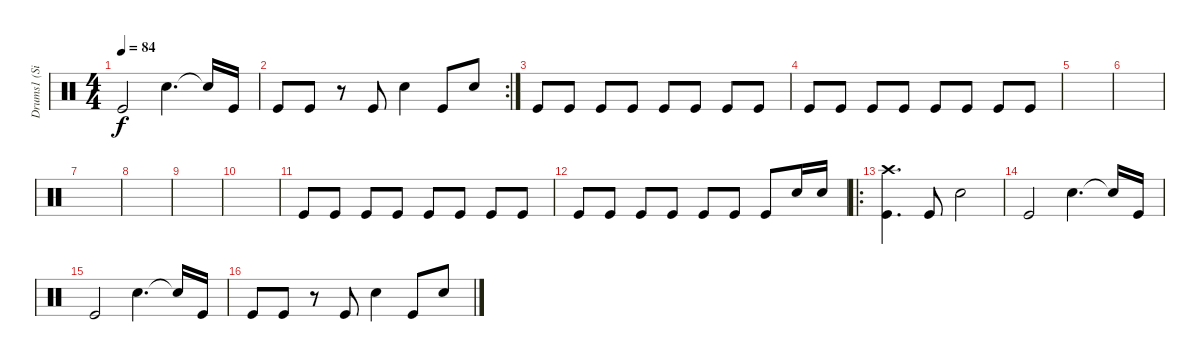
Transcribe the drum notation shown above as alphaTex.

\track ("Drums1 (Silas)" "Drums1 (Si") {instrument percussion}
\staff {score}
\articulation defaults
\ts (4 4)
\tempo 84
\clef neutral
\ks c "Kick (hit)".2{dy f} "Snare (hit) 2".4{d} "Snare (hit) 2"{t}.16 "Kick (hit)".16
|
\rc 2 "Kick (hit)".8 "Kick (hit)".8
r.8 "Kick (hit)".8 "Snare (hit) 2".4 "Kick (hit)".8 "Snare (hit) 2".8 |
"Kick (hit)".8 "Kick (hit)".8 "Kick (hit)".8 "Kick (hit)".8 "Kick (hit)".8 "Kick (hit)".8 "Kick (hit)".8 "Kick (hit)".8 |
"Kick (hit)".8 "Kick (hit)".8 "Kick (hit)".8 "Kick (hit)".8 "Kick (hit)".8 "Kick (hit)".8 "Kick (hit)".8 "Kick (hit)".8 |
|
|
|
|
|
|
"Kick (hit)".8 "Kick (hit)".8 "Kick (hit)".8 "Kick (hit)".8 "Kick (hit)".8 "Kick (hit)".8 "Kick (hit)".8 "Kick (hit)".8 |
"Kick (hit)".8 "Kick (hit)".8 "Kick (hit)".8 "Kick (hit)".8 "Kick (hit)".8 "Kick (hit)".8 "Kick (hit)".8 "Snare (hit) 2".16 "Snare (hit) 2".16 |
\ro
("Kick (hit)" "Crash high (hit)").4{d} "Kick (hit)".8 "Snare (hit) 2".2 |
"Kick (hit)".2 "Snare (hit) 2".4{d} "Snare (hit) 2"{t}.16 "Kick (hit)".16 |
"Kick (hit)".2 "Snare (hit) 2".4{d} "Snare (hit) 2"{t}.16 "Kick (hit)".16 |
"Kick (hit)".8 "Kick (hit)".8 r.8 "Kick (hit)".8 "Snare (hit) 2".4 "Kick (hit)".8 "Snare (hit) 2".8
